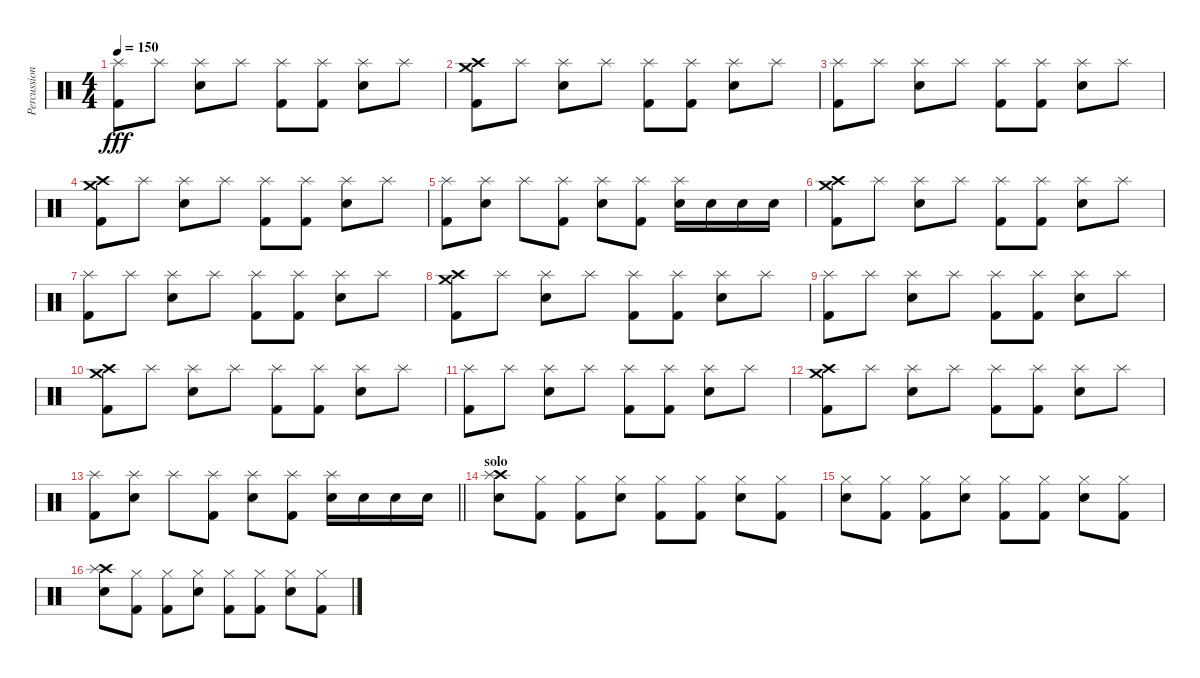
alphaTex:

\track ("Percussion" "Percussion") {instrument percussion}
\staff {score}
\articulation defaults
\ts (4 4)
\tempo 150
\clef neutral
\ks c
("Splash (hit)" "Kick (hit) 2").8{dy fff} "Splash (hit)".8 ("Splash (hit)" "Electric Snare (hit)").8 "Splash (hit)".8 ("Splash (hit)" "Kick (hit) 2").8 ("Splash (hit)" "Kick (hit) 2").8 ("Splash (hit)" "Electric Snare (hit)").8 "Splash (hit)".8 |
("Crash high (hit)" "Kick (hit) 2" "Crash medium (hit)").8 "Splash (hit)".8 ("Splash (hit)" "Electric Snare (hit)").8 "Splash (hit)".8 ("Splash (hit)" "Kick (hit) 2").8 ("Splash (hit)" "Kick (hit) 2").8 ("Splash (hit)" "Electric Snare (hit)").8 "Splash (hit)".8 |
("Splash (hit)" "Kick (hit) 2").8 "Splash (hit)".8 ("Splash (hit)" "Electric Snare (hit)").8 "Splash (hit)".8 ("Splash (hit)" "Kick (hit) 2").8 ("Splash (hit)" "Kick (hit) 2").8 ("Splash (hit)" "Electric Snare (hit)").8 "Splash (hit)".8 |
("Crash high (hit)" "Kick (hit) 2" "Crash medium (hit)").8 "Splash (hit)".8 ("Splash (hit)" "Electric Snare (hit)").8 "Splash (hit)".8 ("Splash (hit)" "Kick (hit) 2").8 ("Splash (hit)" "Kick (hit) 2").8 ("Splash (hit)" "Electric Snare (hit)").8 "Splash (hit)".8 |
("Splash (hit)" "Kick (hit) 2").8 ("Splash (hit)" "Electric Snare (hit)").8 "Splash (hit)".8 ("Splash (hit)" "Kick (hit) 2").8 ("Splash (hit)" "Electric Snare (hit)").8 ("Splash (hit)" "Kick (hit) 2").8 ("Splash (hit)" "Electric Snare (hit)").16 "Electric Snare (hit)".16 "Electric Snare (hit)".16 "Electric Snare (hit)".16 |
("Crash high (hit)" "Kick (hit) 2" "Crash medium (hit)").8 "Splash (hit)".8 ("Splash (hit)" "Electric Snare (hit)").8 "Splash (hit)".8 ("Splash (hit)" "Kick (hit) 2").8 ("Splash (hit)" "Kick (hit) 2").8 ("Splash (hit)" "Electric Snare (hit)").8 "Splash (hit)".8 |
("Splash (hit)" "Kick (hit) 2").8 "Splash (hit)".8 ("Splash (hit)" "Electric Snare (hit)").8 "Splash (hit)".8 ("Splash (hit)" "Kick (hit) 2").8 ("Splash (hit)" "Kick (hit) 2").8 ("Splash (hit)" "Electric Snare (hit)").8 "Splash (hit)".8 |
("Crash high (hit)" "Kick (hit) 2" "Crash medium (hit)").8 "Splash (hit)".8 ("Splash (hit)" "Electric Snare (hit)").8 "Splash (hit)".8 ("Splash (hit)" "Kick (hit) 2").8 ("Splash (hit)" "Kick (hit) 2").8 ("Splash (hit)" "Electric Snare (hit)").8 "Splash (hit)".8 |
("Splash (hit)" "Kick (hit) 2").8 "Splash (hit)".8 ("Splash (hit)" "Electric Snare (hit)").8 "Splash (hit)".8 ("Splash (hit)" "Kick (hit) 2").8 ("Splash (hit)" "Kick (hit) 2").8 ("Splash (hit)" "Electric Snare (hit)").8 "Splash (hit)".8 |
("Crash high (hit)" "Kick (hit) 2" "Crash medium (hit)").8 "Splash (hit)".8 ("Splash (hit)" "Electric Snare (hit)").8 "Splash (hit)".8 ("Splash (hit)" "Kick (hit) 2").8 ("Splash (hit)" "Kick (hit) 2").8 ("Splash (hit)" "Electric Snare (hit)").8 "Splash (hit)".8 |
("Splash (hit)" "Kick (hit) 2").8 "Splash (hit)".8 ("Splash (hit)" "Electric Snare (hit)").8 "Splash (hit)".8 ("Splash (hit)" "Kick (hit) 2").8 ("Splash (hit)" "Kick (hit) 2").8 ("Splash (hit)" "Electric Snare (hit)").8 "Splash (hit)".8 |
("Crash high (hit)" "Kick (hit) 2" "Crash medium (hit)").8 "Splash (hit)".8 ("Splash (hit)" "Electric Snare (hit)").8 "Splash (hit)".8 ("Splash (hit)" "Kick (hit) 2").8 ("Splash (hit)" "Kick (hit) 2").8 ("Splash (hit)" "Electric Snare (hit)").8 "Splash (hit)".8 |
\barLineRight lightlight
("Splash (hit)" "Kick (hit) 2").8 ("Splash (hit)" "Electric Snare (hit)").8 "Splash (hit)".8 ("Splash (hit)" "Kick (hit) 2").8 ("Splash (hit)" "Electric Snare (hit)").8 ("Splash (hit)" "Kick (hit) 2").8 ("Splash (hit)" "Electric Snare (hit)").16 "Electric Snare (hit)".16 "Electric Snare (hit)".16 "Electric Snare (hit)".16 |
\section ("" "solo")
("Crash high (hit)" "Electric Snare (hit)" "Splash (hit)").8 ("Hi-Hat (closed)" "Kick (hit) 2").8 ("Hi-Hat (closed)" "Kick (hit) 2").8 ("Hi-Hat (closed)" "Electric Snare (hit)").8 ("Hi-Hat (closed)" "Kick (hit) 2").8 ("Hi-Hat (closed)" "Kick (hit) 2").8 ("Hi-Hat (closed)" "Electric Snare (hit)").8 ("Hi-Hat (closed)" "Kick (hit) 2").8 |
("Hi-Hat (closed)" "Electric Snare (hit)").8 ("Hi-Hat (closed)" "Kick (hit) 2").8 ("Hi-Hat (closed)" "Kick (hit) 2").8 ("Hi-Hat (closed)" "Electric Snare (hit)").8 ("Hi-Hat (closed)" "Kick (hit) 2").8 ("Hi-Hat (closed)" "Kick (hit) 2").8 ("Hi-Hat (closed)" "Electric Snare (hit)").8 ("Hi-Hat (closed)" "Kick (hit) 2").8 |
("Crash high (hit)" "Electric Snare (hit)" "Splash (hit)").8 ("Hi-Hat (closed)" "Kick (hit) 2").8 ("Hi-Hat (closed)" "Kick (hit) 2").8 ("Hi-Hat (closed)" "Electric Snare (hit)").8 ("Hi-Hat (closed)" "Kick (hit) 2").8 ("Hi-Hat (closed)" "Kick (hit) 2").8 ("Hi-Hat (closed)" "Electric Snare (hit)").8 ("Hi-Hat (closed)" "Kick (hit) 2").8
